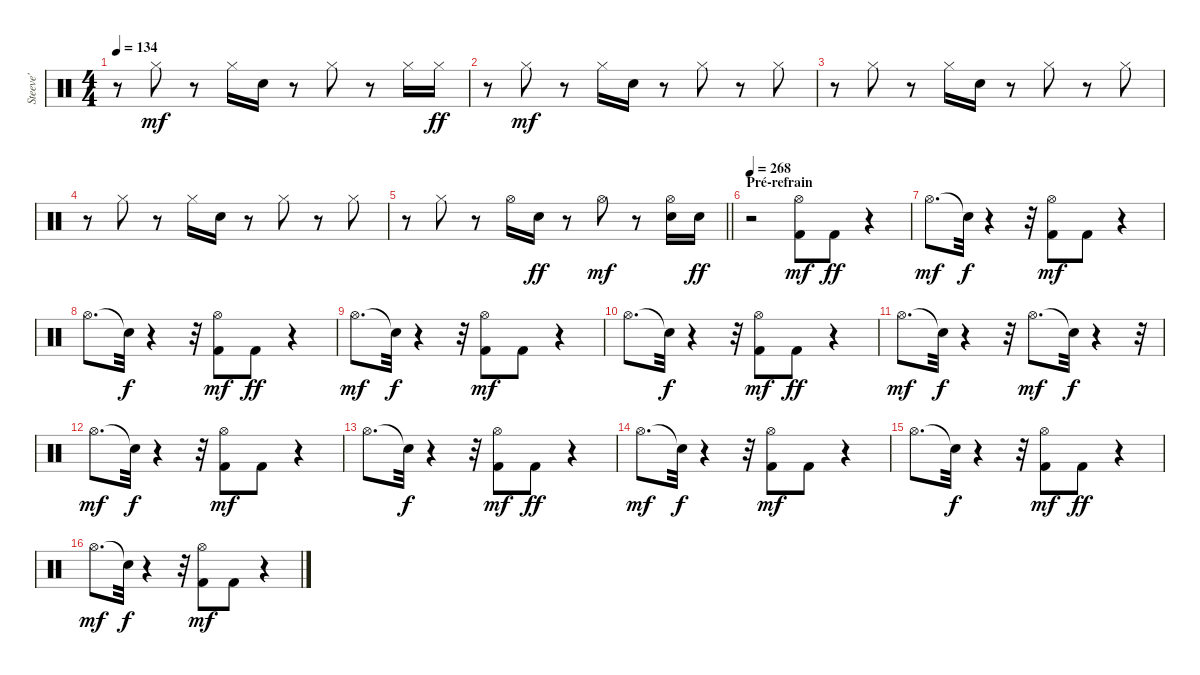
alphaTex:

\track ("Steeve'" "Steeve'") {instrument percussion}
\staff {score}
\articulation defaults
\ts (4 4)
\tempo 134
\clef neutral
\ks c
r.8{dy mf} "Hi-Hat (closed)".8 r.8 "Hi-Hat (closed)".16 "Electric Snare (hit)".16 r.8 "Hi-Hat (closed)".8 r.8 "Hi-Hat (closed)".16 "Hi-Hat (closed)".16{dy ff} |
r.8 "Hi-Hat (closed)".8{dy mf} r.8 "Hi-Hat (closed)".16 "Electric Snare (hit)".16 r.8 "Hi-Hat (closed)".8 r.8 "Hi-Hat (closed)".8 |
r.8 "Hi-Hat (closed)".8 r.8 "Hi-Hat (closed)".16 "Electric Snare (hit)".16 r.8 "Hi-Hat (closed)".8 r.8 "Hi-Hat (closed)".8 |
r.8 "Hi-Hat (closed)".8 r.8 "Hi-Hat (closed)".16 "Electric Snare (hit)".16 r.8 "Hi-Hat (closed)".8 r.8 "Hi-Hat (closed)".8 |
\barLineRight lightlight
r.8 "Hi-Hat (closed)".8 r.8 "Hi-Hat (open)".16 "Electric Snare (hit)".16{dy ff} r.8 "Hi-Hat (open)".8{dy mf} r.8 ("Electric Snare (hit)" "Hi-Hat (open)").16 "Electric Snare (hit)".16{dy ff} |
\section ("" "Pré-refrain")
\tempo 268
r.2 ("Kick (hit) 2" "Hi-Hat (open)").8{dy mf} "Kick (hit) 2".8{dy ff} r.4 |
"Hi-Hat (open)".8{d dy mf} "Snare (hit)"{t}.32{dy f} r.4 r.32 ("Kick (hit) 2" "Hi-Hat (open)").8{dy mf} "Kick (hit) 2".8 r.4 |
"Hi-Hat (open)".8{d} "Snare (hit)"{t}.32{dy f} r.4 r.32 ("Kick (hit) 2" "Hi-Hat (open)").8{dy mf} "Kick (hit) 2".8{dy ff} r.4 |
"Hi-Hat (open)".8{d dy mf} "Snare (hit)"{t}.32{dy f} r.4 r.32 ("Kick (hit) 2" "Hi-Hat (open)").8{dy mf} "Kick (hit) 2".8 r.4 |
"Hi-Hat (open)".8{d} "Snare (hit)"{t}.32{dy f} r.4 r.32 ("Kick (hit) 2" "Hi-Hat (open)").8{dy mf} "Kick (hit) 2".8{dy ff} r.4 |
"Hi-Hat (open)".8{d dy mf} "Snare (hit)"{t}.32{dy f} r.4 r.32 "Hi-Hat (open)".8{d dy mf} "Snare (hit)"{t}.32{dy f} r.4 r.32 |
"Hi-Hat (open)".8{d dy mf} "Snare (hit)"{t}.32{dy f} r.4 r.32 ("Kick (hit) 2" "Hi-Hat (open)").8{dy mf} "Kick (hit) 2".8 r.4 |
"Hi-Hat (open)".8{d} "Snare (hit)"{t}.32{dy f} r.4 r.32 ("Kick (hit) 2" "Hi-Hat (open)").8{dy mf} "Kick (hit) 2".8{dy ff} r.4 |
"Hi-Hat (open)".8{d dy mf} "Snare (hit)"{t}.32{dy f} r.4 r.32 ("Kick (hit) 2" "Hi-Hat (open)").8{dy mf} "Kick (hit) 2".8 r.4 |
"Hi-Hat (open)".8{d} "Snare (hit)"{t}.32{dy f} r.4 r.32 ("Kick (hit) 2" "Hi-Hat (open)").8{dy mf} "Kick (hit) 2".8{dy ff} r.4 |
"Hi-Hat (open)".8{d dy mf} "Snare (hit)"{t}.32{dy f} r.4 r.32 ("Kick (hit) 2" "Hi-Hat (open)").8{dy mf} "Kick (hit) 2".8 r.4
